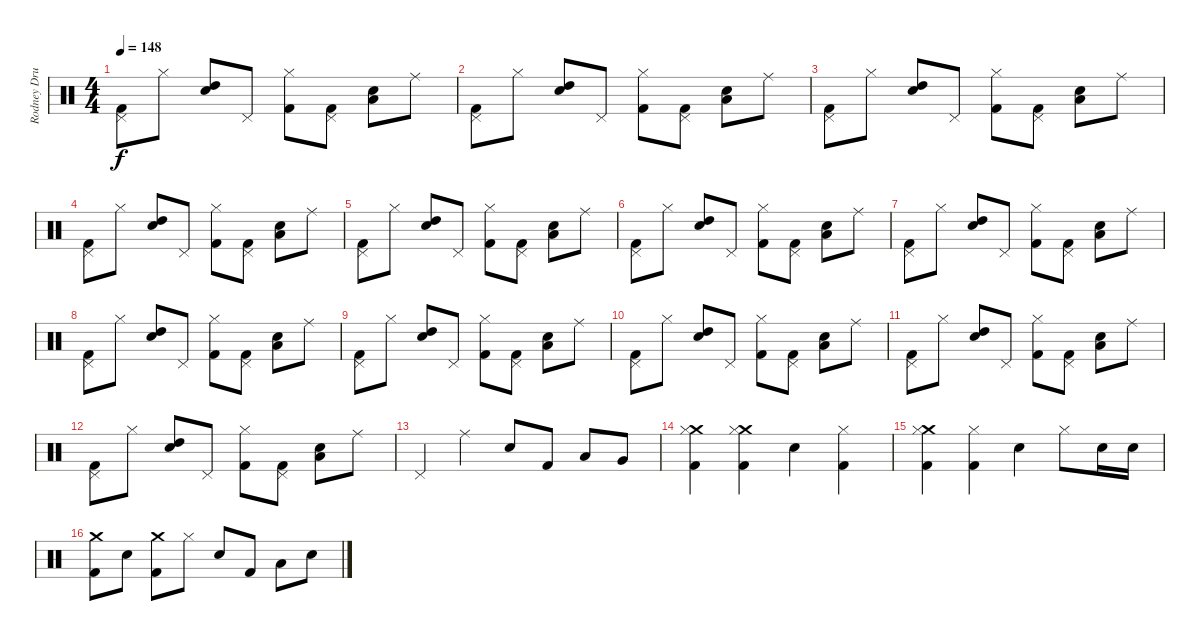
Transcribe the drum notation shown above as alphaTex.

\track ("Rodney Drums" "Rodney Dru") {instrument percussion}
\staff {score}
\articulation defaults
\ts (4 4)
\tempo 148
\clef neutral
\ks c
("Pedal Hi-Hat (hit)" "Kick (hit) 2").8{dy f} "Hi-Hat (closed)".8 ("High Tom (hit)" "Electric Snare (hit)").8 "Pedal Hi-Hat (hit)".8 ("Hi-Hat (closed)" "Kick (hit) 2").8 ("Pedal Hi-Hat (hit)" "Kick (hit) 2").8 ("Low Tom (hit)" "Electric Snare (hit)").8 "Ride (middle)".8 |
("Pedal Hi-Hat (hit)" "Kick (hit) 2").8 "Hi-Hat (closed)".8 ("High Tom (hit)" "Electric Snare (hit)").8 "Pedal Hi-Hat (hit)".8 ("Hi-Hat (closed)" "Kick (hit) 2").8 ("Pedal Hi-Hat (hit)" "Kick (hit) 2").8 ("Low Tom (hit)" "Electric Snare (hit)").8 "Ride (middle)".8 |
("Pedal Hi-Hat (hit)" "Kick (hit) 2").8 "Hi-Hat (closed)".8 ("High Tom (hit)" "Electric Snare (hit)").8 "Pedal Hi-Hat (hit)".8 ("Hi-Hat (closed)" "Kick (hit) 2").8 ("Pedal Hi-Hat (hit)" "Kick (hit) 2").8 ("Low Tom (hit)" "Electric Snare (hit)").8 "Ride (middle)".8 |
("Pedal Hi-Hat (hit)" "Kick (hit) 2").8 "Hi-Hat (closed)".8 ("High Tom (hit)" "Electric Snare (hit)").8 "Pedal Hi-Hat (hit)".8 ("Hi-Hat (closed)" "Kick (hit) 2").8 ("Pedal Hi-Hat (hit)" "Kick (hit) 2").8 ("Low Tom (hit)" "Electric Snare (hit)").8 "Ride (middle)".8 |
("Pedal Hi-Hat (hit)" "Kick (hit) 2").8 "Hi-Hat (closed)".8 ("High Tom (hit)" "Electric Snare (hit)").8 "Pedal Hi-Hat (hit)".8 ("Hi-Hat (closed)" "Kick (hit) 2").8 ("Pedal Hi-Hat (hit)" "Kick (hit) 2").8 ("Low Tom (hit)" "Electric Snare (hit)").8 "Ride (middle)".8 |
("Pedal Hi-Hat (hit)" "Kick (hit) 2").8 "Hi-Hat (closed)".8 ("High Tom (hit)" "Electric Snare (hit)").8 "Pedal Hi-Hat (hit)".8 ("Hi-Hat (closed)" "Kick (hit) 2").8 ("Pedal Hi-Hat (hit)" "Kick (hit) 2").8 ("Low Tom (hit)" "Electric Snare (hit)").8 "Ride (middle)".8 |
("Pedal Hi-Hat (hit)" "Kick (hit) 2").8 "Hi-Hat (closed)".8 ("High Tom (hit)" "Electric Snare (hit)").8 "Pedal Hi-Hat (hit)".8 ("Hi-Hat (closed)" "Kick (hit) 2").8 ("Pedal Hi-Hat (hit)" "Kick (hit) 2").8 ("Low Tom (hit)" "Electric Snare (hit)").8 "Ride (middle)".8 |
("Pedal Hi-Hat (hit)" "Kick (hit) 2").8 "Hi-Hat (closed)".8 ("High Tom (hit)" "Electric Snare (hit)").8 "Pedal Hi-Hat (hit)".8 ("Hi-Hat (closed)" "Kick (hit) 2").8 ("Pedal Hi-Hat (hit)" "Kick (hit) 2").8 ("Low Tom (hit)" "Electric Snare (hit)").8 "Ride (middle)".8 |
("Pedal Hi-Hat (hit)" "Kick (hit) 2").8 "Hi-Hat (closed)".8 ("High Tom (hit)" "Electric Snare (hit)").8 "Pedal Hi-Hat (hit)".8 ("Hi-Hat (closed)" "Kick (hit) 2").8 ("Pedal Hi-Hat (hit)" "Kick (hit) 2").8 ("Low Tom (hit)" "Electric Snare (hit)").8 "Ride (middle)".8 |
("Pedal Hi-Hat (hit)" "Kick (hit) 2").8 "Hi-Hat (closed)".8 ("High Tom (hit)" "Electric Snare (hit)").8 "Pedal Hi-Hat (hit)".8 ("Hi-Hat (closed)" "Kick (hit) 2").8 ("Pedal Hi-Hat (hit)" "Kick (hit) 2").8 ("Low Tom (hit)" "Electric Snare (hit)").8 "Ride (middle)".8 |
("Pedal Hi-Hat (hit)" "Kick (hit) 2").8 "Hi-Hat (closed)".8 ("High Tom (hit)" "Electric Snare (hit)").8 "Pedal Hi-Hat (hit)".8 ("Hi-Hat (closed)" "Kick (hit) 2").8 ("Pedal Hi-Hat (hit)" "Kick (hit) 2").8 ("Low Tom (hit)" "Electric Snare (hit)").8 "Ride (middle)".8 |
("Pedal Hi-Hat (hit)" "Kick (hit) 2").8 "Hi-Hat (closed)".8 ("High Tom (hit)" "Electric Snare (hit)").8 "Pedal Hi-Hat (hit)".8 ("Hi-Hat (closed)" "Kick (hit) 2").8 ("Pedal Hi-Hat (hit)" "Kick (hit) 2").8 ("Low Tom (hit)" "Electric Snare (hit)").8 "Ride (middle)".8 |
"Pedal Hi-Hat (hit)".4 "Ride (middle)".4 "Electric Snare (hit)".8 "Kick (hit) 2".8 "Low Tom (hit)".8 "Very Low Tom (hit)".8 |
("Crash medium (hit)" "Hi-Hat (closed)" "Kick (hit) 2").4 ("Crash medium (hit)" "Hi-Hat (closed)" "Kick (hit) 2").4 "Electric Snare (hit)".4 ("Hi-Hat (closed)" "Kick (hit) 2").4 |
("Crash medium (hit)" "Hi-Hat (closed)" "Kick (hit) 2").4 ("Hi-Hat (closed)" "Kick (hit) 2").4 "Electric Snare (hit)".4 "Hi-Hat (closed)".8 "Electric Snare (hit)".16 "Electric Snare (hit)".16 |
("Crash medium (hit)" "Kick (hit) 2").8 "Electric Snare (hit)".8 ("Crash medium (hit)" "Kick (hit) 2").8 "Hi-Hat (closed)".8 "Electric Snare (hit)".8 "Kick (hit) 2".8 "Low Tom (hit)".8 "Electric Snare (hit)".8
